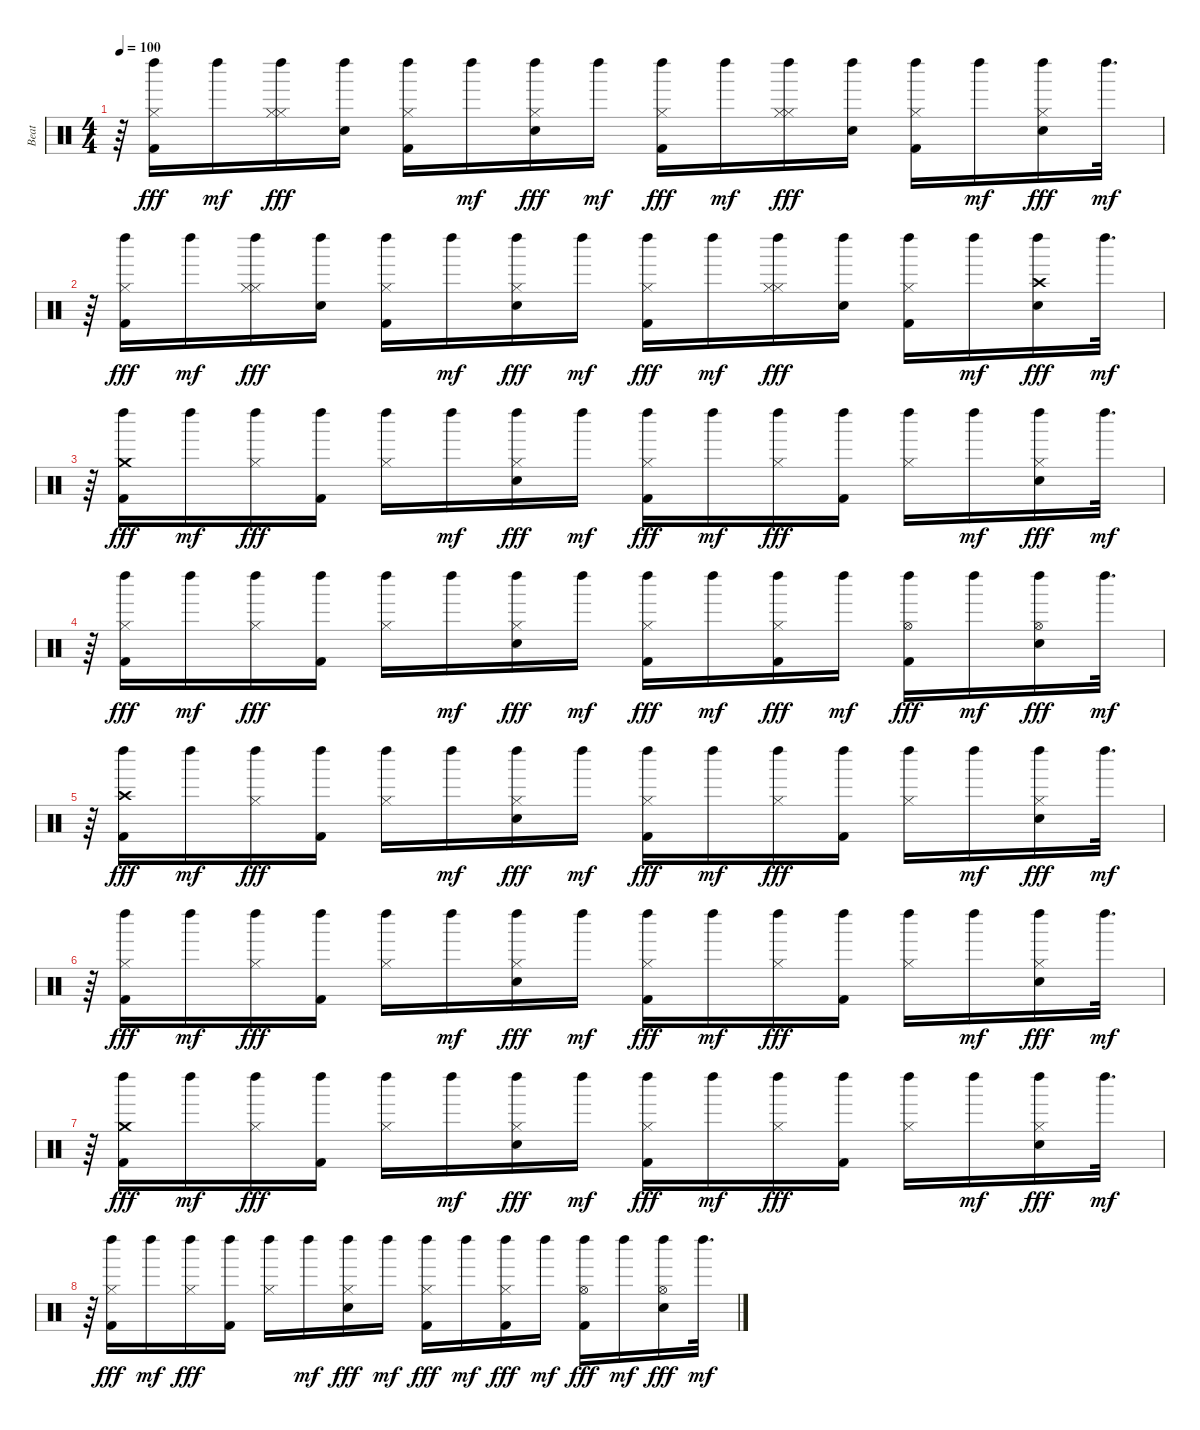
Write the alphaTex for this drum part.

\track ("Beat" "Beat") {instrument percussion}
\staff {score}
\articulation defaults
\ts (4 4)
\tempo 100
\clef neutral
\ks c
r.64{dy mf} ("Left Maraca (hit)" "Hi-Hat (closed)" "Kick (hit) 2").16{dy fff} "Left Maraca (hit)".16{dy mf} ("Hi-Hat (closed)" "Left Maraca (hit)" "Hi-Hat (closed)").16{dy fff} ("Left Maraca (hit)" "Electric Snare (hit)").16 ("Left Maraca (hit)" "Kick (hit) 2" "Hi-Hat (closed)").16 "Left Maraca (hit)".16{dy mf} ("Left Maraca (hit)" "Hi-Hat (closed)" "Electric Snare (hit)").16{dy fff} "Left Maraca (hit)".16{dy mf} ("Left Maraca (hit)" "Hi-Hat (closed)" "Kick (hit) 2").16{dy fff} "Left Maraca (hit)".16{dy mf} ("Left Maraca (hit)" "Hi-Hat (closed)" "Hi-Hat (closed)").16{dy fff} ("Left Maraca (hit)" "Electric Snare (hit)").16 ("Left Maraca (hit)" "Kick (hit) 2" "Hi-Hat (closed)").16 "Left Maraca (hit)".16{dy mf} ("Left Maraca (hit)" "Hi-Hat (closed)" "Electric Snare (hit)").16{dy fff} "Left Maraca (hit)".32{d dy mf} |
r.64 ("Left Maraca (hit)" "Hi-Hat (closed)" "Kick (hit) 2").16{dy fff} "Left Maraca (hit)".16{dy mf} ("Hi-Hat (closed)" "Left Maraca (hit)" "Hi-Hat (closed)").16{dy fff} ("Left Maraca (hit)" "Electric Snare (hit)").16 ("Left Maraca (hit)" "Kick (hit) 2" "Hi-Hat (closed)").16 "Left Maraca (hit)".16{dy mf} ("Left Maraca (hit)" "Hi-Hat (closed)" "Electric Snare (hit)").16{dy fff} "Left Maraca (hit)".16{dy mf} ("Left Maraca (hit)" "Hi-Hat (closed)" "Kick (hit) 2").16{dy fff} "Left Maraca (hit)".16{dy mf} ("Hi-Hat (closed)" "Left Maraca (hit)" "Hi-Hat (closed)").16{dy fff} ("Left Maraca (hit)" "Electric Snare (hit)").16 ("Left Maraca (hit)" "Kick (hit) 2" "Hi-Hat (closed)").16 "Left Maraca (hit)".16{dy mf} ("Left Maraca (hit)" "Crash high (hit)" "Electric Snare (hit)").16{dy fff} "Left Maraca (hit)".32{d dy mf} |
r.64 ("Left Maraca (hit)" "Crash medium (hit)" "Kick (hit) 2").16{dy fff} "Left Maraca (hit)".16{dy mf} ("Left Maraca (hit)" "Hi-Hat (closed)").16{dy fff} ("Left Maraca (hit)" "Kick (hit) 2").16 ("Left Maraca (hit)" "Hi-Hat (closed)").16 "Left Maraca (hit)".16{dy mf} ("Left Maraca (hit)" "Hi-Hat (closed)" "Electric Snare (hit)").16{dy fff} "Left Maraca (hit)".16{dy mf} ("Left Maraca (hit)" "Hi-Hat (closed)" "Kick (hit) 2").16{dy fff} "Left Maraca (hit)".16{dy mf} ("Left Maraca (hit)" "Hi-Hat (closed)").16{dy fff} ("Left Maraca (hit)" "Kick (hit) 2").16 ("Left Maraca (hit)" "Hi-Hat (closed)").16 "Left Maraca (hit)".16{dy mf} ("Left Maraca (hit)" "Hi-Hat (closed)" "Electric Snare (hit)").16{dy fff} "Left Maraca (hit)".32{d dy mf} |
r.64 ("Left Maraca (hit)" "Hi-Hat (closed)" "Kick (hit) 2").16{dy fff} "Left Maraca (hit)".16{dy mf} ("Left Maraca (hit)" "Hi-Hat (closed)").16{dy fff} ("Left Maraca (hit)" "Kick (hit) 2").16 ("Left Maraca (hit)" "Hi-Hat (closed)").16 "Left Maraca (hit)".16{dy mf} ("Left Maraca (hit)" "Hi-Hat (closed)" "Electric Snare (hit)").16{dy fff} "Left Maraca (hit)".16{dy mf} ("Left Maraca (hit)" "Hi-Hat (closed)" "Kick (hit) 2").16{dy fff} "Left Maraca (hit)".16{dy mf} ("Left Maraca (hit)" "Hi-Hat (closed)" "Kick (hit) 2").16{dy fff} "Left Maraca (hit)".16{dy mf} ("Left Maraca (hit)" "Hi-Hat (open)" "Kick (hit) 2").16{dy fff} "Left Maraca (hit)".16{dy mf} ("Left Maraca (hit)" "Hi-Hat (open)" "Electric Snare (hit)").16{dy fff} "Left Maraca (hit)".32{d dy mf} |
r.64 ("Left Maraca (hit)" "Crash high (hit)" "Kick (hit) 2").16{dy fff} "Left Maraca (hit)".16{dy mf} ("Left Maraca (hit)" "Hi-Hat (closed)").16{dy fff} ("Left Maraca (hit)" "Kick (hit) 2").16 ("Left Maraca (hit)" "Hi-Hat (closed)").16 "Left Maraca (hit)".16{dy mf} ("Left Maraca (hit)" "Hi-Hat (closed)" "Electric Snare (hit)").16{dy fff} "Left Maraca (hit)".16{dy mf} ("Left Maraca (hit)" "Hi-Hat (closed)" "Kick (hit) 2").16{dy fff} "Left Maraca (hit)".16{dy mf} ("Left Maraca (hit)" "Hi-Hat (closed)").16{dy fff} ("Left Maraca (hit)" "Kick (hit) 2").16 ("Left Maraca (hit)" "Hi-Hat (closed)").16 "Left Maraca (hit)".16{dy mf} ("Left Maraca (hit)" "Hi-Hat (closed)" "Electric Snare (hit)").16{dy fff} "Left Maraca (hit)".32{d dy mf} |
r.64 ("Left Maraca (hit)" "Hi-Hat (closed)" "Kick (hit) 2").16{dy fff} "Left Maraca (hit)".16{dy mf} ("Left Maraca (hit)" "Hi-Hat (closed)").16{dy fff} ("Left Maraca (hit)" "Kick (hit) 2").16 ("Left Maraca (hit)" "Hi-Hat (closed)").16 "Left Maraca (hit)".16{dy mf} ("Left Maraca (hit)" "Hi-Hat (closed)" "Electric Snare (hit)").16{dy fff} "Left Maraca (hit)".16{dy mf} ("Left Maraca (hit)" "Hi-Hat (closed)" "Kick (hit) 2").16{dy fff} "Left Maraca (hit)".16{dy mf} ("Left Maraca (hit)" "Hi-Hat (closed)").16{dy fff} ("Left Maraca (hit)" "Kick (hit) 2").16 ("Left Maraca (hit)" "Hi-Hat (closed)").16 "Left Maraca (hit)".16{dy mf} ("Left Maraca (hit)" "Hi-Hat (closed)" "Electric Snare (hit)").16{dy fff} "Left Maraca (hit)".32{d dy mf} |
r.64 ("Left Maraca (hit)" "Crash medium (hit)" "Kick (hit) 2").16{dy fff} "Left Maraca (hit)".16{dy mf} ("Left Maraca (hit)" "Hi-Hat (closed)").16{dy fff} ("Left Maraca (hit)" "Kick (hit) 2").16 ("Left Maraca (hit)" "Hi-Hat (closed)").16 "Left Maraca (hit)".16{dy mf} ("Left Maraca (hit)" "Hi-Hat (closed)" "Electric Snare (hit)").16{dy fff} "Left Maraca (hit)".16{dy mf} ("Left Maraca (hit)" "Hi-Hat (closed)" "Kick (hit) 2").16{dy fff} "Left Maraca (hit)".16{dy mf} ("Left Maraca (hit)" "Hi-Hat (closed)").16{dy fff} ("Left Maraca (hit)" "Kick (hit) 2").16 ("Left Maraca (hit)" "Hi-Hat (closed)").16 "Left Maraca (hit)".16{dy mf} ("Left Maraca (hit)" "Hi-Hat (closed)" "Electric Snare (hit)").16{dy fff} "Left Maraca (hit)".32{d dy mf} |
r.64 ("Left Maraca (hit)" "Hi-Hat (closed)" "Kick (hit) 2").16{dy fff} "Left Maraca (hit)".16{dy mf} ("Left Maraca (hit)" "Hi-Hat (closed)").16{dy fff} ("Left Maraca (hit)" "Kick (hit) 2").16 ("Left Maraca (hit)" "Hi-Hat (closed)").16 "Left Maraca (hit)".16{dy mf} ("Left Maraca (hit)" "Hi-Hat (closed)" "Electric Snare (hit)").16{dy fff} "Left Maraca (hit)".16{dy mf} ("Left Maraca (hit)" "Hi-Hat (closed)" "Kick (hit) 2").16{dy fff} "Left Maraca (hit)".16{dy mf} ("Left Maraca (hit)" "Hi-Hat (closed)" "Kick (hit) 2").16{dy fff} "Left Maraca (hit)".16{dy mf} ("Left Maraca (hit)" "Hi-Hat (open)" "Kick (hit) 2").16{dy fff} "Left Maraca (hit)".16{dy mf} ("Left Maraca (hit)" "Hi-Hat (open)" "Electric Snare (hit)").16{dy fff} "Left Maraca (hit)".32{d dy mf}
